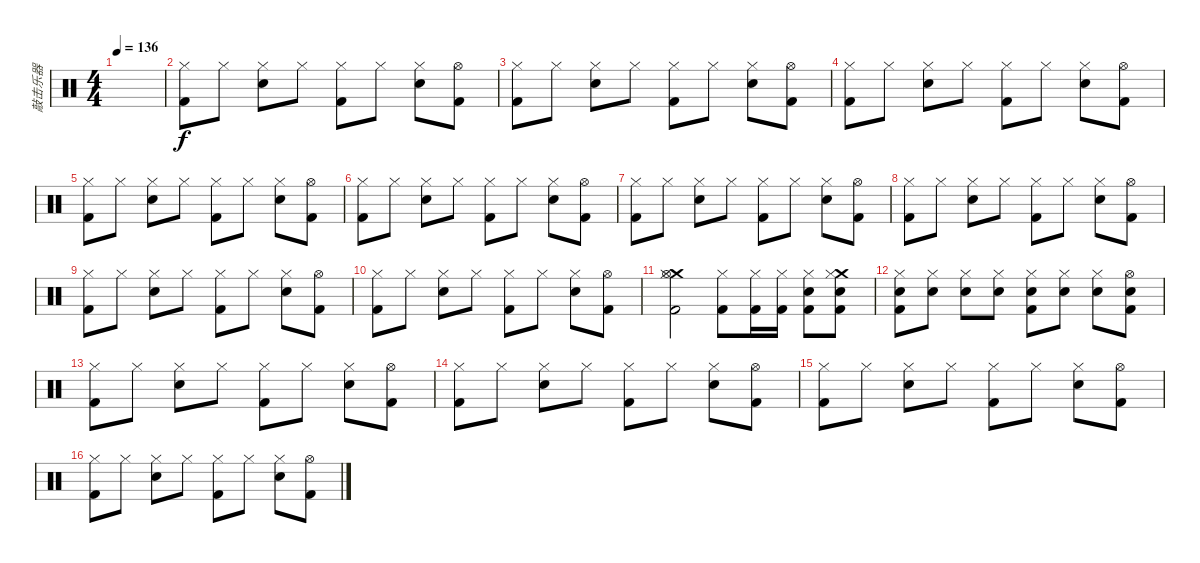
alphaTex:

\track ("敲击乐器" "敲击乐器") {instrument percussion}
\staff {score}
\articulation defaults
\ts (4 4)
\tempo 136
\clef neutral
\ks c
|
("Hi-Hat (closed)" "Kick (hit) 2").8 "Hi-Hat (closed)".8 ("Hi-Hat (closed)" "Electric Snare (hit)").8 "Hi-Hat (closed)".8 ("Hi-Hat (closed)" "Kick (hit) 2").8 "Hi-Hat (closed)".8 ("Hi-Hat (closed)" "Electric Snare (hit)").8 ("Hi-Hat (open)" "Kick (hit) 2").8 |
("Hi-Hat (closed)" "Kick (hit) 2").8 "Hi-Hat (closed)".8 ("Hi-Hat (closed)" "Electric Snare (hit)").8 "Hi-Hat (closed)".8 ("Hi-Hat (closed)" "Kick (hit) 2").8 "Hi-Hat (closed)".8 ("Hi-Hat (closed)" "Electric Snare (hit)").8 ("Hi-Hat (open)" "Kick (hit) 2").8 |
("Hi-Hat (closed)" "Kick (hit) 2").8 "Hi-Hat (closed)".8 ("Hi-Hat (closed)" "Electric Snare (hit)").8 "Hi-Hat (closed)".8 ("Hi-Hat (closed)" "Kick (hit) 2").8 "Hi-Hat (closed)".8 ("Hi-Hat (closed)" "Electric Snare (hit)").8 ("Hi-Hat (open)" "Kick (hit) 2").8 |
("Hi-Hat (closed)" "Kick (hit) 2").8 "Hi-Hat (closed)".8 ("Hi-Hat (closed)" "Electric Snare (hit)").8 "Hi-Hat (closed)".8 ("Hi-Hat (closed)" "Kick (hit) 2").8 "Hi-Hat (closed)".8 ("Hi-Hat (closed)" "Electric Snare (hit)").8 ("Hi-Hat (open)" "Kick (hit) 2").8 |
("Hi-Hat (closed)" "Kick (hit) 2").8 "Hi-Hat (closed)".8 ("Hi-Hat (closed)" "Electric Snare (hit)").8 "Hi-Hat (closed)".8 ("Hi-Hat (closed)" "Kick (hit) 2").8 "Hi-Hat (closed)".8 ("Hi-Hat (closed)" "Electric Snare (hit)").8 ("Hi-Hat (open)" "Kick (hit) 2").8 |
("Hi-Hat (closed)" "Kick (hit) 2").8 "Hi-Hat (closed)".8 ("Hi-Hat (closed)" "Electric Snare (hit)").8 "Hi-Hat (closed)".8 ("Hi-Hat (closed)" "Kick (hit) 2").8 "Hi-Hat (closed)".8 ("Hi-Hat (closed)" "Electric Snare (hit)").8 ("Hi-Hat (open)" "Kick (hit) 2").8 |
("Hi-Hat (closed)" "Kick (hit) 2").8 "Hi-Hat (closed)".8 ("Hi-Hat (closed)" "Electric Snare (hit)").8 "Hi-Hat (closed)".8 ("Hi-Hat (closed)" "Kick (hit) 2").8 "Hi-Hat (closed)".8 ("Hi-Hat (closed)" "Electric Snare (hit)").8 ("Hi-Hat (open)" "Kick (hit) 2").8 |
("Hi-Hat (closed)" "Kick (hit) 2").8 "Hi-Hat (closed)".8 ("Hi-Hat (closed)" "Electric Snare (hit)").8 "Hi-Hat (closed)".8 ("Hi-Hat (closed)" "Kick (hit) 2").8 "Hi-Hat (closed)".8 ("Hi-Hat (closed)" "Electric Snare (hit)").8 ("Hi-Hat (open)" "Kick (hit) 2").8 |
("Hi-Hat (closed)" "Kick (hit) 2").8 "Hi-Hat (closed)".8 ("Hi-Hat (closed)" "Electric Snare (hit)").8 "Hi-Hat (closed)".8 ("Hi-Hat (closed)" "Kick (hit) 2").8 "Hi-Hat (closed)".8 ("Hi-Hat (closed)" "Electric Snare (hit)").8 ("Hi-Hat (open)" "Kick (hit) 2").8 |
("Crash medium (hit)" "Hi-Hat (open)" "Hi-Hat (closed)" "Kick (hit) 2").2 ("Kick (hit) 2" "Hi-Hat (closed)").8 ("Kick (hit) 2" "Hi-Hat (closed)").16 ("Kick (hit) 2" "Hi-Hat (closed)").16 ("Snare (hit) 2" "Kick (hit) 2" "Hi-Hat (closed)").8 ("Crash medium (hit)" "Snare (hit) 2" "Kick (hit) 2" "Hi-Hat (closed)").8 |
("Hi-Hat (closed)" "Snare (hit) 2" "Kick (hit) 2").8 ("Hi-Hat (closed)" "Snare (hit) 2").8 ("Hi-Hat (closed)" "Snare (hit) 2").8 ("Hi-Hat (closed)" "Snare (hit) 2").8 ("Hi-Hat (closed)" "Snare (hit) 2" "Kick (hit) 2").8 ("Hi-Hat (closed)" "Snare (hit) 2").8 ("Hi-Hat (closed)" "Snare (hit) 2").8 ("Hi-Hat (open)" "Snare (hit) 2" "Kick (hit) 2").8 |
("Hi-Hat (closed)" "Kick (hit) 2").8 "Hi-Hat (closed)".8 ("Hi-Hat (closed)" "Electric Snare (hit)").8 "Hi-Hat (closed)".8 ("Hi-Hat (closed)" "Kick (hit) 2").8 "Hi-Hat (closed)".8 ("Hi-Hat (closed)" "Electric Snare (hit)").8 ("Hi-Hat (open)" "Kick (hit) 2").8 |
("Hi-Hat (closed)" "Kick (hit) 2").8 "Hi-Hat (closed)".8 ("Hi-Hat (closed)" "Electric Snare (hit)").8 "Hi-Hat (closed)".8 ("Hi-Hat (closed)" "Kick (hit) 2").8 "Hi-Hat (closed)".8 ("Hi-Hat (closed)" "Electric Snare (hit)").8 ("Hi-Hat (open)" "Kick (hit) 2").8 |
("Hi-Hat (closed)" "Kick (hit) 2").8 "Hi-Hat (closed)".8 ("Hi-Hat (closed)" "Electric Snare (hit)").8 "Hi-Hat (closed)".8 ("Hi-Hat (closed)" "Kick (hit) 2").8 "Hi-Hat (closed)".8 ("Hi-Hat (closed)" "Electric Snare (hit)").8 ("Hi-Hat (open)" "Kick (hit) 2").8 |
("Hi-Hat (closed)" "Kick (hit) 2").8 "Hi-Hat (closed)".8 ("Hi-Hat (closed)" "Electric Snare (hit)").8 "Hi-Hat (closed)".8 ("Hi-Hat (closed)" "Kick (hit) 2").8 "Hi-Hat (closed)".8 ("Hi-Hat (closed)" "Electric Snare (hit)").8 ("Hi-Hat (open)" "Kick (hit) 2").8
